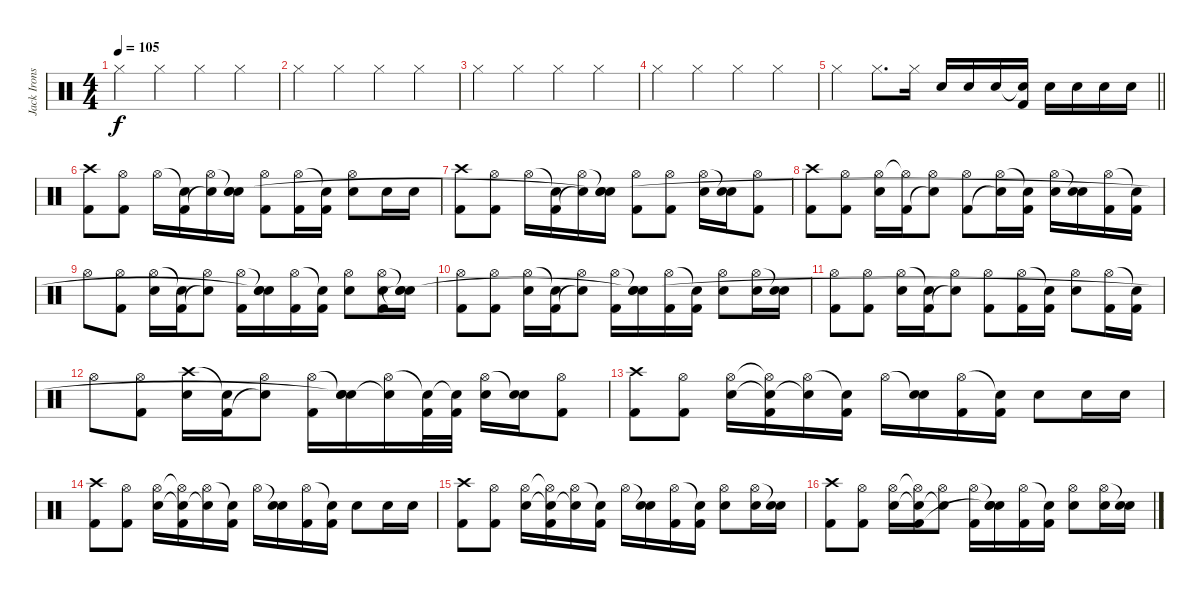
\track ("Jack Irons" "Jack Irons") {instrument percussion}
\staff {score}
\articulation defaults
\ts (4 4)
\tempo 105
\clef neutral
\ks c "Hi-Hat (closed)".4{dy f} "Hi-Hat (closed)".4 "Hi-Hat (closed)".4 "Hi-Hat (closed)".4
|
"Hi-Hat (closed)".4 "Hi-Hat (closed)".4 "Hi-Hat (closed)".4 "Hi-Hat (closed)".4 |
"Hi-Hat (closed)".4 "Hi-Hat (closed)".4 "Hi-Hat (closed)".4 "Hi-Hat (closed)".4 |
"Hi-Hat (closed)".4 "Hi-Hat (closed)".4 "Hi-Hat (closed)".4 "Hi-Hat (closed)".4 |
\barLineRight lightlight "Hi-Hat (closed)".4 "Hi-Hat (closed)".8{d} "Hi-Hat (closed)".16 "Snare (hit) 2".16 "Snare (hit) 2".16 "Snare (hit) 2".16
("Snare (hit)"{t} "Kick (hit) 2").16 "Snare (hit) 2".16 "Snare (hit) 2".16 "Snare (hit) 2".16 "Snare (hit) 2".16 |
("Crash high (hit)" "Kick (hit) 2").8 ("Hi-Hat (open)" "Kick (hit) 2").8 "Hi-Hat (open)".16 ("Snare (hit)"{t} "Kick (hit) 2").16 ("Hi-Hat (open)" "Snare (hit)"{t}).16 ("Snare (hit)"{t} "Snare (hit) 2" "Snare (hit)").16 ("Hi-Hat (open)" "Kick (hit) 2").8 ("Hi-Hat (open)" "Kick (hit) 2").16 ("Snare (hit)"{t} "Kick (hit) 2").16 ("Hi-Hat (open)" "Snare (hit) 2").8 "Snare (hit) 2".16 "Snare (hit) 2".16 |
("Crash high (hit)" "Kick (hit) 2").8 ("Hi-Hat (open)" "Kick (hit) 2").8 "Hi-Hat (open)".16 ("Snare (hit)"{t} "Kick (hit) 2").16 ("Hi-Hat (open)" "Snare (hit)"{t}).16 ("Snare (hit)"{t} "Snare (hit) 2" "Snare (hit)"{t}).16 ("Hi-Hat (open)" "Kick (hit) 2").8 ("Hi-Hat (open)" "Kick (hit) 2").8 ("Hi-Hat (open)" "Snare (hit) 2").16 ("Snare (hit)"{t} "Snare (hit) 2").16 ("Hi-Hat (open)" "Kick (hit) 2").8 |
("Crash high (hit)" "Kick (hit) 2").8 ("Hi-Hat (open)" "Kick (hit) 2").8 ("Hi-Hat (open)" "Snare (hit) 2").16 ("Hi-Hat (open)"{t} "Kick (hit) 2").16 ("Hi-Hat (open)" "Snare (hit)"{t}).8 ("Hi-Hat (open)" "Kick (hit) 2").8 ("Hi-Hat (open)" "Snare (hit)"{t}).16 ("Snare (hit)"{t} "Kick (hit) 2").16 ("Hi-Hat (open)" "Snare (hit) 2").16 ("Snare (hit)"{t} "Snare (hit) 2").16 ("Hi-Hat (open)" "Kick (hit) 2").16 ("Snare (hit)"{t} "Kick (hit) 2").16 |
"Hi-Hat (open)".8 ("Hi-Hat (open)" "Kick (hit) 2").8 ("Hi-Hat (open)" "Snare (hit) 2").16 ("Snare (hit)"{t} "Kick (hit) 2").16 ("Hi-Hat (open)" "Snare (hit)"{t}).8 ("Hi-Hat (open)" "Kick (hit) 2").16 ("Snare (hit)"{t} "Snare (hit) 2" "Snare (hit)"{t}).16 ("Hi-Hat (open)" "Kick (hit) 2").16 ("Snare (hit)"{t} "Kick (hit) 2").16 ("Hi-Hat (open)" "Snare (hit) 2").8 ("Hi-Hat (open)" "Snare (hit) 2" "Kick (hit) 2").16 ("Snare (hit)"{t} "Snare (hit) 2" "Snare (hit)"{t}).16 |
("Hi-Hat (open)" "Kick (hit) 2").8 ("Hi-Hat (open)" "Kick (hit) 2").8 ("Hi-Hat (open)" "Snare (hit) 2").16 ("Snare (hit)"{t} "Kick (hit) 2").16 ("Hi-Hat (open)" "Snare (hit)"{t}).8 ("Hi-Hat (open)" "Kick (hit) 2").16 ("Snare (hit)"{t} "Snare (hit) 2" "Snare (hit)"{t}).16 ("Hi-Hat (open)" "Kick (hit) 2").16 ("Snare (hit)"{t} "Kick (hit) 2").16 ("Hi-Hat (open)" "Snare (hit) 2").8 ("Hi-Hat (open)" "Snare (hit) 2").16 ("Snare (hit)"{t} "Snare (hit) 2").16 |
("Hi-Hat (open)" "Kick (hit) 2").8 ("Hi-Hat (open)" "Kick (hit) 2").8 ("Hi-Hat (open)" "Snare (hit) 2").16 ("Snare (hit)"{t} "Kick (hit) 2").16 ("Hi-Hat (open)" "Snare (hit)"{t}).8 ("Hi-Hat (open)" "Kick (hit) 2").8 ("Hi-Hat (open)" "Kick (hit) 2").16 ("Snare (hit)"{t} "Kick (hit) 2").16 ("Hi-Hat (open)" "Snare (hit) 2").8 ("Hi-Hat (open)" "Kick (hit) 2").16 ("Snare (hit)"{t} "Kick (hit) 2").16 |
"Hi-Hat (open)".8 ("Hi-Hat (open)" "Kick (hit) 2").8 ("Crash high (hit)" "Snare (hit) 2").16 ("Snare (hit)"{t} "Kick (hit) 2").16 ("Hi-Hat (open)" "Snare (hit)"{t}).8 ("Hi-Hat (open)" "Kick (hit) 2").16 ("Snare (hit)"{t} "Snare (hit) 2" "Snare (hit)"{t}).16 ("Hi-Hat (open)" "Snare (hit)"{t}).16 ("Snare (hit)"{t} "Kick (hit) 2").32 ("Snare (hit)"{t} "Kick (hit) 2").32 ("Hi-Hat (open)" "Snare (hit) 2").16 ("Snare (hit)"{t} "Snare (hit) 2").16 ("Hi-Hat (open)" "Kick (hit) 2").8 |
("Crash high (hit)" "Kick (hit) 2").8 ("Hi-Hat (open)" "Kick (hit) 2").8 ("Hi-Hat (open)" "Snare (hit) 2").16 ("Hi-Hat (open)"{t} "Snare (hit)"{t} "Kick (hit) 2").16 ("Hi-Hat (open)" "Snare (hit)"{t}).16 ("Snare (hit)"{t} "Kick (hit) 2").16 "Hi-Hat (open)".16 ("Snare (hit)"{t} "Snare (hit) 2").16 ("Hi-Hat (open)" "Kick (hit) 2").16 ("Snare (hit)"{t} "Kick (hit) 2").16 "Snare (hit) 2".8 "Snare (hit) 2".16 "Snare (hit) 2".16 |
("Crash high (hit)" "Kick (hit) 2").8 ("Hi-Hat (open)" "Kick (hit) 2").8 ("Hi-Hat (open)" "Snare (hit) 2").16 ("Hi-Hat (open)"{t} "Snare (hit)"{t} "Kick (hit) 2").16 ("Hi-Hat (open)" "Snare (hit)"{t}).16 ("Snare (hit)"{t} "Kick (hit) 2").16 "Hi-Hat (open)".16 ("Snare (hit)"{t} "Snare (hit) 2").16 ("Hi-Hat (open)" "Kick (hit) 2").16 ("Snare (hit)"{t} "Kick (hit) 2").16 "Snare (hit) 2".8 "Snare (hit) 2".16 "Snare (hit) 2".16 |
("Crash high (hit)" "Kick (hit) 2").8 ("Hi-Hat (open)" "Kick (hit) 2").8 ("Hi-Hat (open)" "Snare (hit) 2").16 ("Hi-Hat (open)"{t} "Snare (hit)"{t} "Kick (hit) 2").16 ("Hi-Hat (open)" "Snare (hit)"{t}).16 ("Snare (hit)"{t} "Kick (hit) 2").16 "Hi-Hat (open)".16 ("Snare (hit)"{t} "Snare (hit) 2").16 ("Hi-Hat (open)" "Kick (hit) 2").16 ("Snare (hit)"{t} "Kick (hit) 2").16 ("Hi-Hat (open)" "Snare (hit) 2").8 ("Hi-Hat (open)" "Snare (hit) 2").16 ("Snare (hit)"{t} "Snare (hit) 2").16 |
("Crash high (hit)" "Kick (hit) 2").8 ("Hi-Hat (open)" "Kick (hit) 2").8 ("Hi-Hat (open)" "Snare (hit) 2").16 ("Hi-Hat (open)"{t} "Snare (hit)"{t} "Kick (hit) 2").16 ("Hi-Hat (open)" "Snare (hit)"{t}).8 ("Hi-Hat (open)" "Kick (hit) 2").16 ("Snare (hit)"{t} "Snare (hit) 2" "Snare (hit)"{t}).16 ("Hi-Hat (open)" "Kick (hit) 2").16 ("Snare (hit)"{t} "Kick (hit) 2").16 ("Hi-Hat (open)" "Snare (hit) 2").8 ("Hi-Hat (open)" "Snare (hit) 2").16 ("Snare (hit)"{t} "Snare (hit) 2").16
